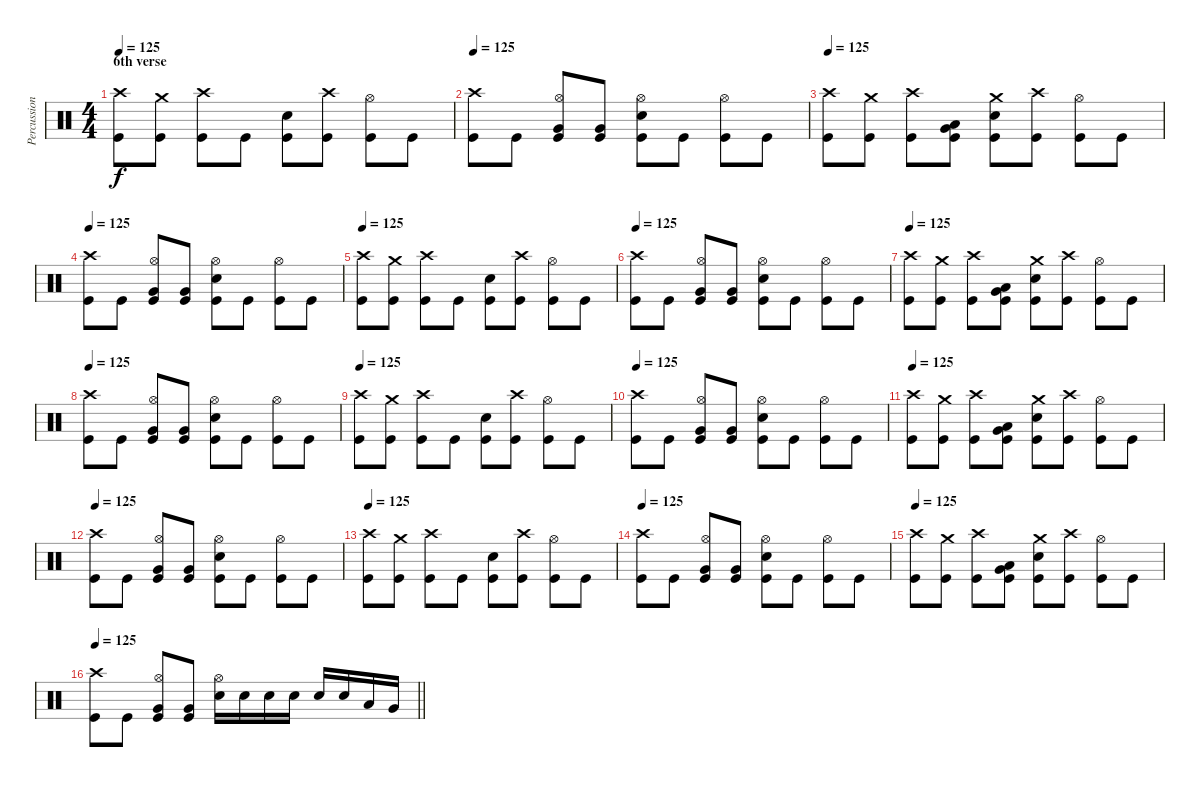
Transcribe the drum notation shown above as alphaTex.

\track ("Percussions" "Percussion") {instrument percussion}
\staff {score}
\articulation defaults
\ts (4 4)
\section ("" "6th verse")
\tempo 125
\clef neutral
\ks c
("Crash high (hit)" "Kick (hit)").8{dy f} ("Crash medium (hit)" "Kick (hit)").8 ("Crash high (hit)" "Kick (hit)").8 "Kick (hit)".8 ("Electric Snare (hit)" "Kick (hit)").8 ("Crash high (hit)" "Kick (hit)").8 ("Hi-Hat (open)" "Kick (hit)").8 "Kick (hit)".8 |
\tempo 125
("Crash high (hit)" "Kick (hit)").8 "Kick (hit)".8 ("Hi-Hat (open)" "Very Low Tom (hit)" "Kick (hit)").8 ("Very Low Tom (hit)" "Kick (hit)").8 ("Kick (hit)" "Hi-Hat (open)" "Electric Snare (hit)").8 "Kick (hit)".8 ("Hi-Hat (open)" "Kick (hit)").8 "Kick (hit)".8 |
\tempo 125
("Crash high (hit)" "Kick (hit)").8 ("Crash medium (hit)" "Kick (hit)").8 ("Crash high (hit)" "Kick (hit)").8 ("Very Low Tom (hit)" "Low Floor Tom (hit)" "Kick (hit)").8 ("Crash medium (hit)" "Electric Snare (hit)" "Kick (hit)").8 ("Crash high (hit)" "Kick (hit)").8 ("Hi-Hat (open)" "Kick (hit)").8 "Kick (hit)".8 |
\tempo 125
("Crash high (hit)" "Kick (hit)").8 "Kick (hit)".8 ("Hi-Hat (open)" "Very Low Tom (hit)" "Kick (hit)").8 ("Very Low Tom (hit)" "Kick (hit)").8 ("Kick (hit)" "Hi-Hat (open)" "Electric Snare (hit)").8 "Kick (hit)".8 ("Hi-Hat (open)" "Kick (hit)").8 "Kick (hit)".8 |
\tempo 125
("Crash high (hit)" "Kick (hit)").8 ("Crash medium (hit)" "Kick (hit)").8 ("Crash high (hit)" "Kick (hit)").8 "Kick (hit)".8 ("Electric Snare (hit)" "Kick (hit)").8 ("Crash high (hit)" "Kick (hit)").8 ("Hi-Hat (open)" "Kick (hit)").8 "Kick (hit)".8 |
\tempo 125
("Crash high (hit)" "Kick (hit)").8 "Kick (hit)".8 ("Hi-Hat (open)" "Very Low Tom (hit)" "Kick (hit)").8 ("Very Low Tom (hit)" "Kick (hit)").8 ("Kick (hit)" "Hi-Hat (open)" "Electric Snare (hit)").8 "Kick (hit)".8 ("Hi-Hat (open)" "Kick (hit)").8 "Kick (hit)".8 |
\tempo 125
("Crash high (hit)" "Kick (hit)").8 ("Crash medium (hit)" "Kick (hit)").8 ("Crash high (hit)" "Kick (hit)").8 ("Very Low Tom (hit)" "Low Floor Tom (hit)" "Kick (hit)").8 ("Crash medium (hit)" "Electric Snare (hit)" "Kick (hit)").8 ("Crash high (hit)" "Kick (hit)").8 ("Hi-Hat (open)" "Kick (hit)").8 "Kick (hit)".8 |
\tempo 125
("Crash high (hit)" "Kick (hit)").8 "Kick (hit)".8 ("Hi-Hat (open)" "Very Low Tom (hit)" "Kick (hit)").8 ("Very Low Tom (hit)" "Kick (hit)").8 ("Kick (hit)" "Hi-Hat (open)" "Electric Snare (hit)").8 "Kick (hit)".8 ("Hi-Hat (open)" "Kick (hit)").8 "Kick (hit)".8 |
\tempo 125
("Crash high (hit)" "Kick (hit)").8 ("Crash medium (hit)" "Kick (hit)").8 ("Crash high (hit)" "Kick (hit)").8 "Kick (hit)".8 ("Electric Snare (hit)" "Kick (hit)").8 ("Crash high (hit)" "Kick (hit)").8 ("Hi-Hat (open)" "Kick (hit)").8 "Kick (hit)".8 |
\tempo 125
("Crash high (hit)" "Kick (hit)").8 "Kick (hit)".8 ("Hi-Hat (open)" "Very Low Tom (hit)" "Kick (hit)").8 ("Very Low Tom (hit)" "Kick (hit)").8 ("Kick (hit)" "Hi-Hat (open)" "Electric Snare (hit)").8 "Kick (hit)".8 ("Hi-Hat (open)" "Kick (hit)").8 "Kick (hit)".8 |
\tempo 125
("Crash high (hit)" "Kick (hit)").8 ("Crash medium (hit)" "Kick (hit)").8 ("Crash high (hit)" "Kick (hit)").8 ("Very Low Tom (hit)" "Low Floor Tom (hit)" "Kick (hit)").8 ("Crash medium (hit)" "Electric Snare (hit)" "Kick (hit)").8 ("Crash high (hit)" "Kick (hit)").8 ("Hi-Hat (open)" "Kick (hit)").8 "Kick (hit)".8 |
\tempo 125
("Crash high (hit)" "Kick (hit)").8 "Kick (hit)".8 ("Hi-Hat (open)" "Very Low Tom (hit)" "Kick (hit)").8 ("Very Low Tom (hit)" "Kick (hit)").8 ("Kick (hit)" "Hi-Hat (open)" "Electric Snare (hit)").8 "Kick (hit)".8 ("Hi-Hat (open)" "Kick (hit)").8 "Kick (hit)".8 |
\tempo 125
("Crash high (hit)" "Kick (hit)").8 ("Crash medium (hit)" "Kick (hit)").8 ("Crash high (hit)" "Kick (hit)").8 "Kick (hit)".8 ("Electric Snare (hit)" "Kick (hit)").8 ("Crash high (hit)" "Kick (hit)").8 ("Hi-Hat (open)" "Kick (hit)").8 "Kick (hit)".8 |
\tempo 125
("Crash high (hit)" "Kick (hit)").8 "Kick (hit)".8 ("Hi-Hat (open)" "Very Low Tom (hit)" "Kick (hit)").8 ("Very Low Tom (hit)" "Kick (hit)").8 ("Kick (hit)" "Hi-Hat (open)" "Electric Snare (hit)").8 "Kick (hit)".8 ("Hi-Hat (open)" "Kick (hit)").8 "Kick (hit)".8 |
\tempo 125
("Crash high (hit)" "Kick (hit)").8 ("Crash medium (hit)" "Kick (hit)").8 ("Crash high (hit)" "Kick (hit)").8 ("Very Low Tom (hit)" "Low Floor Tom (hit)" "Kick (hit)").8 ("Crash medium (hit)" "Electric Snare (hit)" "Kick (hit)").8 ("Crash high (hit)" "Kick (hit)").8 ("Hi-Hat (open)" "Kick (hit)").8 "Kick (hit)".8 |
\tempo 125
\barLineRight lightlight
("Crash high (hit)" "Kick (hit)").8 "Kick (hit)".8 ("Hi-Hat (open)" "Very Low Tom (hit)" "Kick (hit)").8 ("Very Low Tom (hit)" "Kick (hit)").8 ("Hi-Hat (open)" "Electric Snare (hit)").16 "Electric Snare (hit)".16 "Electric Snare (hit)".16 "Electric Snare (hit)".16 "Electric Snare (hit)".16 "Electric Snare (hit)".16 "Low Tom (hit)".16 "Very Low Tom (hit)".16
